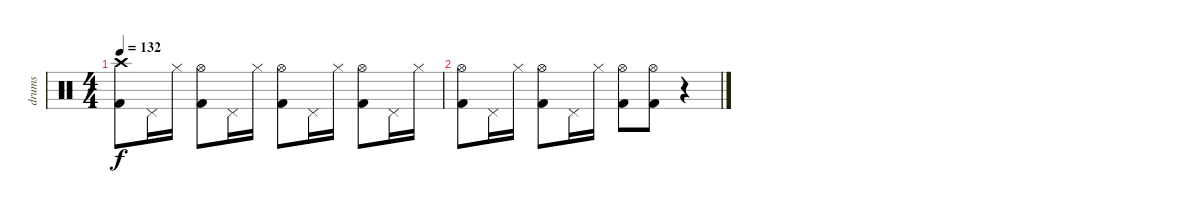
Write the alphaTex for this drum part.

\track ("drums" "drums") {instrument percussion}
\staff {score}
\articulation defaults
\ts (4 4)
\tempo 132
\clef neutral
\ks c
("Crash high (hit)" "Kick (hit) 2").8{dy f} "Pedal Hi-Hat (hit)".16 "Hi-Hat (closed)".16 ("Hi-Hat (open)" "Kick (hit) 2").8 "Pedal Hi-Hat (hit)".16 "Hi-Hat (closed)".16 ("Hi-Hat (open)" "Kick (hit) 2").8 "Pedal Hi-Hat (hit)".16 "Hi-Hat (closed)".16 ("Hi-Hat (open)" "Kick (hit) 2").8 "Pedal Hi-Hat (hit)".16 "Hi-Hat (closed)".16 |
("Hi-Hat (open)" "Kick (hit) 2").8 "Pedal Hi-Hat (hit)".16 "Hi-Hat (closed)".16 ("Hi-Hat (open)" "Kick (hit) 2").8 "Pedal Hi-Hat (hit)".16 "Hi-Hat (closed)".16 ("Hi-Hat (open)" "Kick (hit) 2").8 ("Hi-Hat (open)" "Kick (hit) 2").8 r.4
